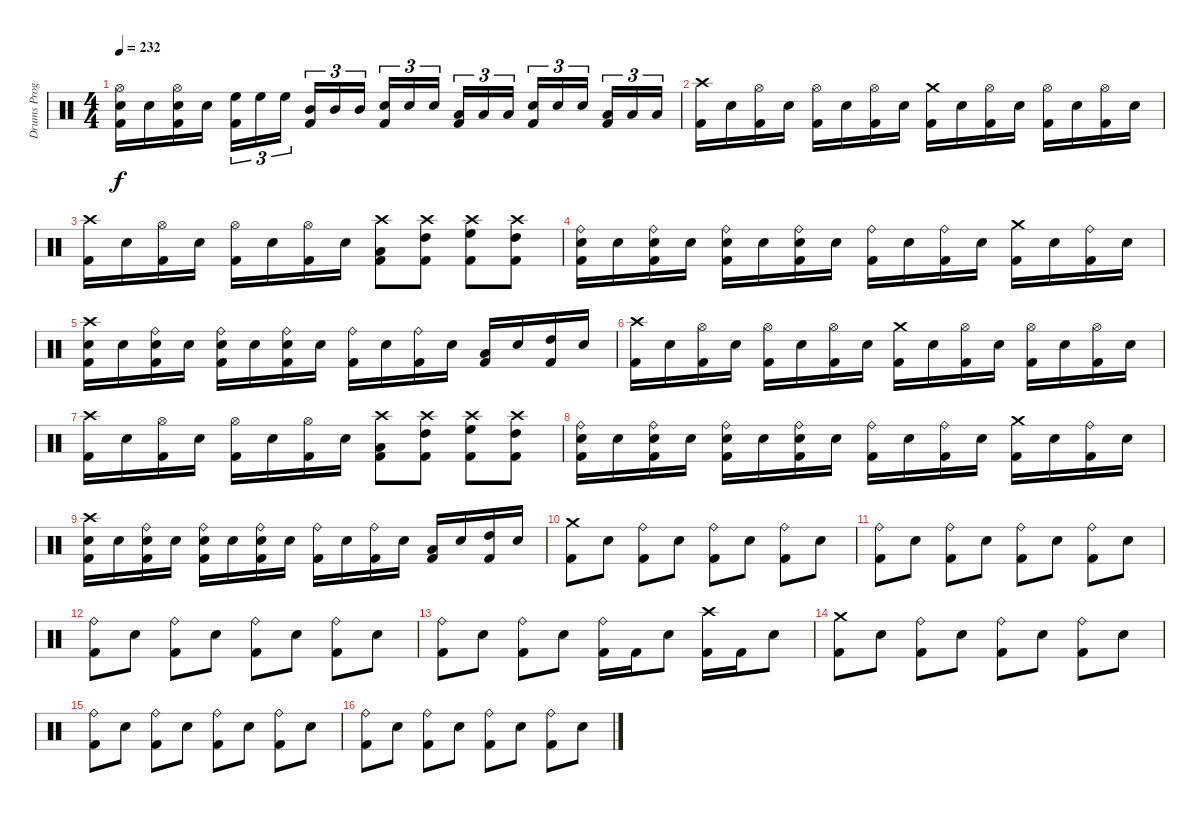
\track ("Drums Programming" "Drums Prog") {instrument percussion}
\staff {score}
\articulation defaults
\ts (4 4)
\tempo 232
\clef neutral
\ks c
("Hi-Hat (open)" "Electric Snare (hit)" "Kick (hit) 2").16{dy f} "Electric Snare (hit)".16 ("Hi-Hat (open)" "Electric Snare (hit)" "Kick (hit) 2").16 "Electric Snare (hit)".16 ("High Floor Tom (hit)" "Kick (hit) 2").16{tu (3 2)} "High Floor Tom (hit)".16{tu (3 2)} "High Floor Tom (hit)".16{tu (3 2)} ("Mid Tom (hit)" "Kick (hit) 2").16{tu (3 2)} "Mid Tom (hit)".16{tu (3 2)} "Mid Tom (hit)".16{tu (3 2)} ("Electric Snare (hit)" "Kick (hit) 2").16{tu (3 2)} "Electric Snare (hit)".16{tu (3 2)} "Electric Snare (hit)".16{tu (3 2)} ("Low Tom (hit)" "Kick (hit) 2").16{tu (3 2)} "Low Tom (hit)".16{tu (3 2)} "Low Tom (hit)".16{tu (3 2)} ("Electric Snare (hit)" "Kick (hit) 2").16{tu (3 2)} "Electric Snare (hit)".16{tu (3 2)} "Electric Snare (hit)".16{tu (3 2)} ("Low Floor Tom (hit)" "Kick (hit) 2").16{tu (3 2)} "Low Floor Tom (hit)".16{tu (3 2)} "Low Floor Tom (hit)".16{tu (3 2)} |
("Crash high (hit)" "Kick (hit) 2").16 "Electric Snare (hit)".16 ("Hi-Hat (open)" "Kick (hit) 2").16 "Electric Snare (hit)".16 ("Hi-Hat (open)" "Kick (hit) 2").16 "Electric Snare (hit)".16 ("Hi-Hat (open)" "Kick (hit) 2").16 "Electric Snare (hit)".16 ("Crash medium (hit)" "Kick (hit) 2").16 "Electric Snare (hit)".16 ("Hi-Hat (open)" "Kick (hit) 2").16 "Electric Snare (hit)".16 ("Hi-Hat (open)" "Kick (hit) 2").16 "Electric Snare (hit)".16 ("Hi-Hat (open)" "Kick (hit) 2").16 "Electric Snare (hit)".16 |
("Crash high (hit)" "Kick (hit) 2").16 "Electric Snare (hit)".16 ("Hi-Hat (open)" "Kick (hit) 2").16 "Electric Snare (hit)".16 ("Hi-Hat (open)" "Kick (hit) 2").16 "Electric Snare (hit)".16 ("Hi-Hat (open)" "Kick (hit) 2").16 "Electric Snare (hit)".16 ("Crash high (hit)" "Low Tom (hit)" "Kick (hit) 2").8 ("Crash high (hit)" "High Tom (hit)" "Kick (hit) 2").8 ("Crash high (hit)" "High Floor Tom (hit)" "Kick (hit) 2").8 ("Crash high (hit)" "High Tom (hit)" "Kick (hit) 2").8 |
("Ride (bell)" "Electric Snare (hit)" "Kick (hit) 2").16 "Electric Snare (hit)".16 ("Ride (bell)" "Electric Snare (hit)" "Kick (hit) 2").16 "Electric Snare (hit)".16 ("Ride (bell)" "Electric Snare (hit)" "Kick (hit) 2").16 "Electric Snare (hit)".16 ("Ride (bell)" "Electric Snare (hit)" "Kick (hit) 2").16 "Electric Snare (hit)".16 ("Ride (bell)" "Kick (hit) 2").16 "Electric Snare (hit)".16 ("Ride (bell)" "Kick (hit) 2").16 "Electric Snare (hit)".16 ("Crash medium (hit)" "Kick (hit) 2").16 "Electric Snare (hit)".16 ("Ride (bell)" "Kick (hit) 2").16 "Electric Snare (hit)".16 |
("Crash high (hit)" "Electric Snare (hit)" "Kick (hit) 2").16 "Electric Snare (hit)".16 ("Ride (bell)" "Electric Snare (hit)" "Kick (hit) 2").16 "Electric Snare (hit)".16 ("Ride (bell)" "Electric Snare (hit)" "Kick (hit) 2").16 "Electric Snare (hit)".16 ("Ride (bell)" "Electric Snare (hit)" "Kick (hit) 2").16 "Electric Snare (hit)".16 ("Ride (bell)" "Kick (hit) 2").16 "Electric Snare (hit)".16 ("Ride (bell)" "Kick (hit) 2").16 "Electric Snare (hit)".16 ("Low Tom (hit)" "Kick (hit) 2").16 "Electric Snare (hit)".16 ("High Tom (hit)" "Kick (hit) 2").16 "Electric Snare (hit)".16 |
("Crash high (hit)" "Kick (hit) 2").16 "Electric Snare (hit)".16 ("Hi-Hat (open)" "Kick (hit) 2").16 "Electric Snare (hit)".16 ("Hi-Hat (open)" "Kick (hit) 2").16 "Electric Snare (hit)".16 ("Hi-Hat (open)" "Kick (hit) 2").16 "Electric Snare (hit)".16 ("Crash medium (hit)" "Kick (hit) 2").16 "Electric Snare (hit)".16 ("Hi-Hat (open)" "Kick (hit) 2").16 "Electric Snare (hit)".16 ("Hi-Hat (open)" "Kick (hit) 2").16 "Electric Snare (hit)".16 ("Hi-Hat (open)" "Kick (hit) 2").16 "Electric Snare (hit)".16 |
("Crash high (hit)" "Kick (hit) 2").16 "Electric Snare (hit)".16 ("Hi-Hat (open)" "Kick (hit) 2").16 "Electric Snare (hit)".16 ("Hi-Hat (open)" "Kick (hit) 2").16 "Electric Snare (hit)".16 ("Hi-Hat (open)" "Kick (hit) 2").16 "Electric Snare (hit)".16 ("Crash high (hit)" "Low Tom (hit)" "Kick (hit) 2").8 ("Crash high (hit)" "High Tom (hit)" "Kick (hit) 2").8 ("Crash high (hit)" "High Floor Tom (hit)" "Kick (hit) 2").8 ("Crash high (hit)" "High Tom (hit)" "Kick (hit) 2").8 |
("Ride (bell)" "Electric Snare (hit)" "Kick (hit) 2").16 "Electric Snare (hit)".16 ("Ride (bell)" "Electric Snare (hit)" "Kick (hit) 2").16 "Electric Snare (hit)".16 ("Ride (bell)" "Electric Snare (hit)" "Kick (hit) 2").16 "Electric Snare (hit)".16 ("Ride (bell)" "Electric Snare (hit)" "Kick (hit) 2").16 "Electric Snare (hit)".16 ("Ride (bell)" "Kick (hit) 2").16 "Electric Snare (hit)".16 ("Ride (bell)" "Kick (hit) 2").16 "Electric Snare (hit)".16 ("Crash medium (hit)" "Kick (hit) 2").16 "Electric Snare (hit)".16 ("Ride (bell)" "Kick (hit) 2").16 "Electric Snare (hit)".16 |
("Crash high (hit)" "Electric Snare (hit)" "Kick (hit) 2").16 "Electric Snare (hit)".16 ("Ride (bell)" "Electric Snare (hit)" "Kick (hit) 2").16 "Electric Snare (hit)".16 ("Ride (bell)" "Electric Snare (hit)" "Kick (hit) 2").16 "Electric Snare (hit)".16 ("Ride (bell)" "Electric Snare (hit)" "Kick (hit) 2").16 "Electric Snare (hit)".16 ("Ride (bell)" "Kick (hit) 2").16 "Electric Snare (hit)".16 ("Ride (bell)" "Kick (hit) 2").16 "Electric Snare (hit)".16 ("Low Tom (hit)" "Kick (hit) 2").16 "Electric Snare (hit)".16 ("High Tom (hit)" "Kick (hit) 2").16 "Electric Snare (hit)".16 |
("Crash medium (hit)" "Kick (hit) 2").8 "Electric Snare (hit)".8 ("Ride (bell)" "Kick (hit) 2").8 "Electric Snare (hit)".8 ("Ride (bell)" "Kick (hit) 2").8 "Electric Snare (hit)".8 ("Ride (bell)" "Kick (hit) 2").8 "Electric Snare (hit)".8 |
("Ride (bell)" "Kick (hit) 2").8 "Electric Snare (hit)".8 ("Ride (bell)" "Kick (hit) 2").8 "Electric Snare (hit)".8 ("Ride (bell)" "Kick (hit) 2").8 "Electric Snare (hit)".8 ("Ride (bell)" "Kick (hit) 2").8 "Electric Snare (hit)".8 |
("Ride (bell)" "Kick (hit) 2").8 "Electric Snare (hit)".8 ("Ride (bell)" "Kick (hit) 2").8 "Electric Snare (hit)".8 ("Ride (bell)" "Kick (hit) 2").8 "Electric Snare (hit)".8 ("Ride (bell)" "Kick (hit) 2").8 "Electric Snare (hit)".8 |
("Ride (bell)" "Kick (hit) 2").8 "Electric Snare (hit)".8 ("Ride (bell)" "Kick (hit) 2").8 "Electric Snare (hit)".8 ("Ride (bell)" "Kick (hit) 2").16 "Kick (hit) 2".16 "Electric Snare (hit)".8 ("Crash high (hit)" "Kick (hit) 2").16 "Kick (hit) 2".16 "Electric Snare (hit)".8 |
("Crash medium (hit)" "Kick (hit) 2").8 "Electric Snare (hit)".8 ("Ride (bell)" "Kick (hit) 2").8 "Electric Snare (hit)".8 ("Ride (bell)" "Kick (hit) 2").8 "Electric Snare (hit)".8 ("Ride (bell)" "Kick (hit) 2").8 "Electric Snare (hit)".8 |
("Ride (bell)" "Kick (hit) 2").8 "Electric Snare (hit)".8 ("Ride (bell)" "Kick (hit) 2").8 "Electric Snare (hit)".8 ("Ride (bell)" "Kick (hit) 2").8 "Electric Snare (hit)".8 ("Ride (bell)" "Kick (hit) 2").8 "Electric Snare (hit)".8 |
("Ride (bell)" "Kick (hit) 2").8 "Electric Snare (hit)".8 ("Ride (bell)" "Kick (hit) 2").8 "Electric Snare (hit)".8 ("Ride (bell)" "Kick (hit) 2").8 "Electric Snare (hit)".8 ("Ride (bell)" "Kick (hit) 2").8 "Electric Snare (hit)".8
